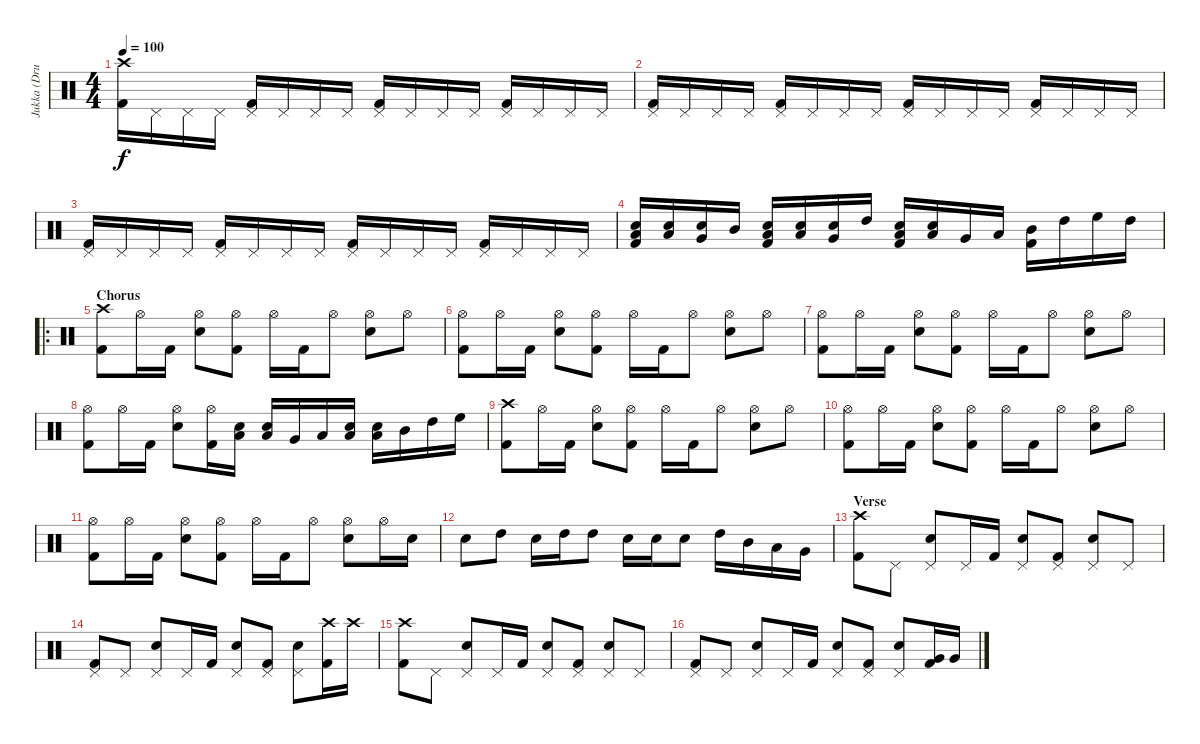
\track ("Jukka (Drums)" "Jukka (Dru") {instrument percussion}
\staff {score}
\articulation defaults
\ts (4 4)
\tempo 100
\clef neutral
\ks c
("Crash high (hit)" "Kick (hit) 2").16{dy f} "Pedal Hi-Hat (hit)".16 "Pedal Hi-Hat (hit)".16 "Pedal Hi-Hat (hit)".16 ("Pedal Hi-Hat (hit)" "Kick (hit) 2").16 "Pedal Hi-Hat (hit)".16 "Pedal Hi-Hat (hit)".16 "Pedal Hi-Hat (hit)".16 ("Pedal Hi-Hat (hit)" "Kick (hit) 2").16 "Pedal Hi-Hat (hit)".16 "Pedal Hi-Hat (hit)".16 "Pedal Hi-Hat (hit)".16 ("Pedal Hi-Hat (hit)" "Kick (hit) 2").16 "Pedal Hi-Hat (hit)".16 "Pedal Hi-Hat (hit)".16 "Pedal Hi-Hat (hit)".16 |
("Pedal Hi-Hat (hit)" "Kick (hit) 2").16 "Pedal Hi-Hat (hit)".16 "Pedal Hi-Hat (hit)".16 "Pedal Hi-Hat (hit)".16 ("Pedal Hi-Hat (hit)" "Kick (hit) 2").16 "Pedal Hi-Hat (hit)".16 "Pedal Hi-Hat (hit)".16 "Pedal Hi-Hat (hit)".16 ("Pedal Hi-Hat (hit)" "Kick (hit) 2").16 "Pedal Hi-Hat (hit)".16 "Pedal Hi-Hat (hit)".16 "Pedal Hi-Hat (hit)".16 ("Pedal Hi-Hat (hit)" "Kick (hit) 2").16 "Pedal Hi-Hat (hit)".16 "Pedal Hi-Hat (hit)".16 "Pedal Hi-Hat (hit)".16 |
("Pedal Hi-Hat (hit)" "Kick (hit) 2").16 "Pedal Hi-Hat (hit)".16 "Pedal Hi-Hat (hit)".16 "Pedal Hi-Hat (hit)".16 ("Pedal Hi-Hat (hit)" "Kick (hit) 2").16 "Pedal Hi-Hat (hit)".16 "Pedal Hi-Hat (hit)".16 "Pedal Hi-Hat (hit)".16 ("Pedal Hi-Hat (hit)" "Kick (hit) 2").16 "Pedal Hi-Hat (hit)".16 "Pedal Hi-Hat (hit)".16 "Pedal Hi-Hat (hit)".16 ("Pedal Hi-Hat (hit)" "Kick (hit) 2").16 "Pedal Hi-Hat (hit)".16 "Pedal Hi-Hat (hit)".16 "Pedal Hi-Hat (hit)".16 |
("Low Floor Tom (hit)" "Electric Snare (hit)" "Kick (hit) 2").16 ("Low Floor Tom (hit)" "Electric Snare (hit)").16 ("Very Low Tom (hit)" "Electric Snare (hit)").16 "Mid Tom (hit)".16 ("Low Floor Tom (hit)" "Electric Snare (hit)" "Kick (hit) 2").16 ("Low Floor Tom (hit)" "Electric Snare (hit)").16 ("Very Low Tom (hit)" "Electric Snare (hit)").16 "High Tom (hit)".16 ("Low Floor Tom (hit)" "Electric Snare (hit)" "Kick (hit) 2").16 ("Low Floor Tom (hit)" "Electric Snare (hit)").16 "Very Low Tom (hit)".16 "Low Tom (hit)".16 ("Mid Tom (hit)" "Kick (hit) 2").16 "High Tom (hit)".16 "High Floor Tom (hit)".16 "High Tom (hit)".16 |
\ro
\section ("" "Chorus ")
("Crash high (hit)" "Kick (hit) 2").8 "Hi-Hat (open)".16 "Kick (hit) 2".16 ("Hi-Hat (open)" "Snare (hit) 2").8 ("Hi-Hat (open)" "Kick (hit) 2").8 "Hi-Hat (open)".16 "Kick (hit) 2".16 "Hi-Hat (open)".8 ("Hi-Hat (open)" "Snare (hit) 2").8 "Hi-Hat (open)".8 |
("Hi-Hat (open)" "Kick (hit) 2").8 "Hi-Hat (open)".16 "Kick (hit) 2".16 ("Hi-Hat (open)" "Snare (hit) 2").8 ("Hi-Hat (open)" "Kick (hit) 2").8 "Hi-Hat (open)".16 "Kick (hit) 2".16 "Hi-Hat (open)".8 ("Hi-Hat (open)" "Snare (hit) 2").8 "Hi-Hat (open)".8 |
("Hi-Hat (open)" "Kick (hit) 2").8 "Hi-Hat (open)".16 "Kick (hit) 2".16 ("Hi-Hat (open)" "Snare (hit) 2").8 ("Hi-Hat (open)" "Kick (hit) 2").8 "Hi-Hat (open)".16 "Kick (hit) 2".16 "Hi-Hat (open)".8 ("Hi-Hat (open)" "Snare (hit) 2").8 "Hi-Hat (open)".8 |
("Hi-Hat (open)" "Kick (hit) 2").8 "Hi-Hat (open)".16 "Kick (hit) 2".16 ("Hi-Hat (open)" "Snare (hit) 2").8 ("Hi-Hat (open)" "Kick (hit) 2").16 ("Low Floor Tom (hit)" "Electric Snare (hit)").16 ("Low Tom (hit)" "Electric Snare (hit)").16 "Very Low Tom (hit)".16 "Low Floor Tom (hit)".16 ("Low Floor Tom (hit)" "Electric Snare (hit)").16 ("Low Tom (hit)" "Electric Snare (hit)").16 "Mid Tom (hit)".16 "High Tom (hit)".16 "High Floor Tom (hit)".16 |
("Crash high (hit)" "Kick (hit) 2").8 "Hi-Hat (open)".16 "Kick (hit) 2".16 ("Hi-Hat (open)" "Snare (hit) 2").8 ("Hi-Hat (open)" "Kick (hit) 2").8 "Hi-Hat (open)".16 "Kick (hit) 2".16 "Hi-Hat (open)".8 ("Hi-Hat (open)" "Snare (hit) 2").8 "Hi-Hat (open)".8 |
("Hi-Hat (open)" "Kick (hit) 2").8 "Hi-Hat (open)".16 "Kick (hit) 2".16 ("Hi-Hat (open)" "Snare (hit) 2").8 ("Hi-Hat (open)" "Kick (hit) 2").8 "Hi-Hat (open)".16 "Kick (hit) 2".16 "Hi-Hat (open)".8 ("Hi-Hat (open)" "Snare (hit) 2").8 "Hi-Hat (open)".8 |
("Hi-Hat (open)" "Kick (hit) 2").8 "Hi-Hat (open)".16 "Kick (hit) 2".16 ("Hi-Hat (open)" "Snare (hit) 2").8 ("Hi-Hat (open)" "Kick (hit) 2").8 "Hi-Hat (open)".16 "Kick (hit) 2".16 "Hi-Hat (open)".8 ("Hi-Hat (open)" "Snare (hit) 2").8 "Hi-Hat (open)".16 "Snare (hit) 2".16 |
"Snare (hit) 2".8 "High Tom (hit)".8 "Snare (hit) 2".16 "High Tom (hit)".16 "High Tom (hit)".8 "Snare (hit) 2".16 "Snare (hit) 2".16 "Snare (hit) 2".8 "High Tom (hit)".16 "Mid Tom (hit)".16 "Low Tom (hit)".16 "Very Low Tom (hit)".16 |
\section ("" "Verse ")
("Crash high (hit)" "Kick (hit) 2").8 "Pedal Hi-Hat (hit)".8 ("Pedal Hi-Hat (hit)" "Snare (hit) 2").8 "Pedal Hi-Hat (hit)".16 "Kick (hit) 2".16 ("Pedal Hi-Hat (hit)" "Snare (hit) 2").8 ("Pedal Hi-Hat (hit)" "Kick (hit) 2").8 ("Pedal Hi-Hat (hit)" "Snare (hit) 2").8 "Pedal Hi-Hat (hit)".8 |
("Pedal Hi-Hat (hit)" "Kick (hit) 2").8 "Pedal Hi-Hat (hit)".8 ("Pedal Hi-Hat (hit)" "Snare (hit) 2").8 "Pedal Hi-Hat (hit)".16 "Kick (hit) 2".16 ("Pedal Hi-Hat (hit)" "Snare (hit) 2").8 ("Pedal Hi-Hat (hit)" "Kick (hit) 2").8 ("Pedal Hi-Hat (hit)" "Snare (hit) 2").8 ("Crash high (hit)" "Kick (hit) 2").16 "Crash high (hit)".16 |
("Crash high (hit)" "Kick (hit) 2").8 "Pedal Hi-Hat (hit)".8 ("Pedal Hi-Hat (hit)" "Snare (hit) 2").8 "Pedal Hi-Hat (hit)".16 "Kick (hit) 2".16 ("Pedal Hi-Hat (hit)" "Snare (hit) 2").8 ("Pedal Hi-Hat (hit)" "Kick (hit) 2").8 ("Pedal Hi-Hat (hit)" "Snare (hit) 2").8 "Pedal Hi-Hat (hit)".8 |
("Pedal Hi-Hat (hit)" "Kick (hit) 2").8 "Pedal Hi-Hat (hit)".8 ("Pedal Hi-Hat (hit)" "Snare (hit) 2").8 "Pedal Hi-Hat (hit)".16 "Kick (hit) 2".16 ("Pedal Hi-Hat (hit)" "Snare (hit) 2").8 ("Pedal Hi-Hat (hit)" "Kick (hit) 2").8 ("Pedal Hi-Hat (hit)" "Snare (hit) 2").8 ("Very Low Tom (hit)" "Kick (hit) 2").16 "Very Low Tom (hit)".16
